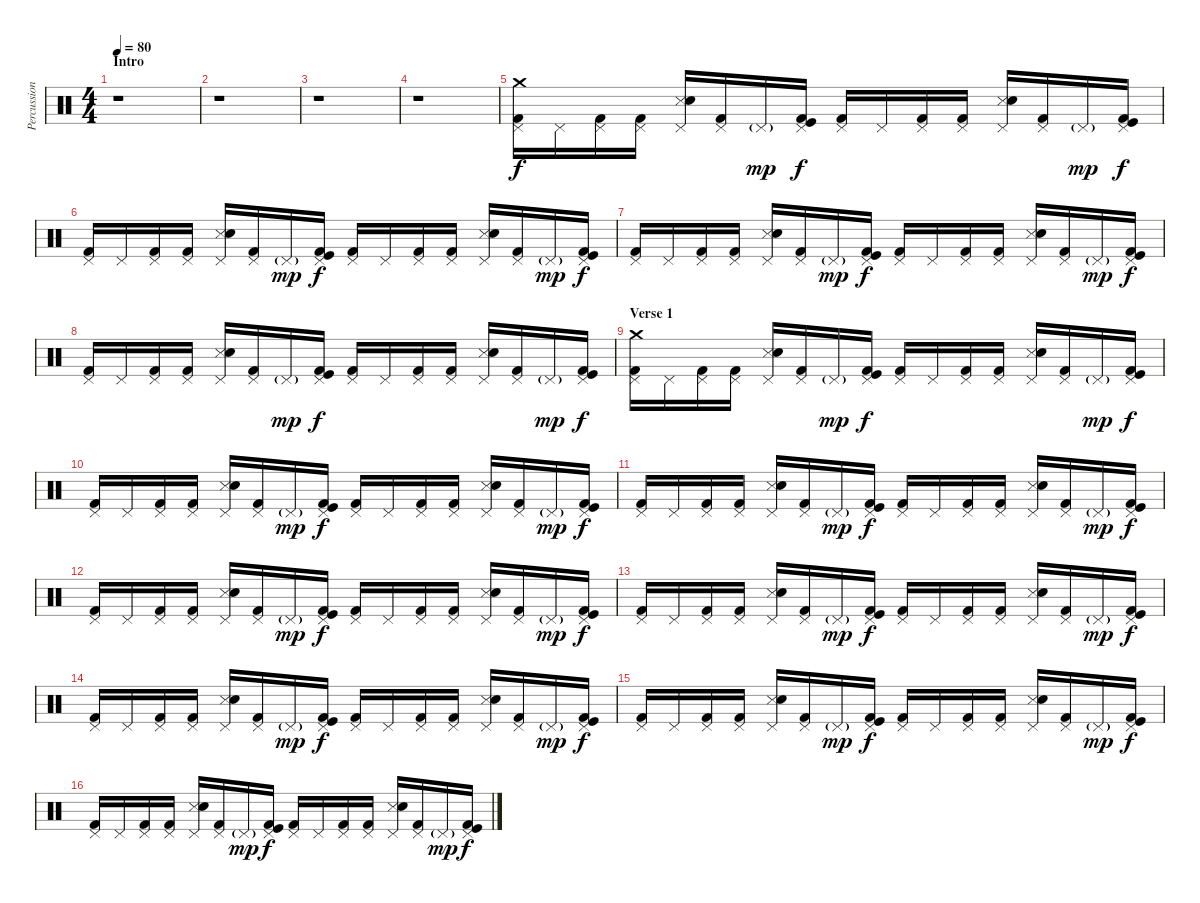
\track ("Percussions" "Percussion") {instrument percussion}
\staff {score}
\articulation defaults
\ts (4 4)
\section ("" "Intro")
\tempo 80
\clef neutral
\ks c
r.1{dy f} |
r.1 |
r.1 |
r.1 |
("Crash medium (hit)" "Pedal Hi-Hat (hit)" "Kick (hit) 2").16 "Pedal Hi-Hat (hit)".16 ("Pedal Hi-Hat (hit)" "Kick (hit) 2").16 ("Pedal Hi-Hat (hit)" "Kick (hit) 2").16 ("Pedal Hi-Hat (hit)" "Snare (side stick) 3" "Electric Snare (hit)").16 ("Pedal Hi-Hat (hit)" "Kick (hit) 2").16 "Pedal Hi-Hat (hit)"{g}.16{dy mp} ("Pedal Hi-Hat (hit)" "Kick (hit) 2" "Kick (hit)").16{dy f} ("Pedal Hi-Hat (hit)" "Kick (hit) 2").16 "Pedal Hi-Hat (hit)".16 ("Pedal Hi-Hat (hit)" "Kick (hit) 2").16 ("Pedal Hi-Hat (hit)" "Kick (hit) 2").16 ("Pedal Hi-Hat (hit)" "Snare (side stick) 3" "Electric Snare (hit)").16 ("Pedal Hi-Hat (hit)" "Kick (hit) 2").16 "Pedal Hi-Hat (hit)"{g}.16{dy mp} ("Pedal Hi-Hat (hit)" "Kick (hit) 2" "Kick (hit)").16{dy f} |
("Pedal Hi-Hat (hit)" "Kick (hit) 2").16 "Pedal Hi-Hat (hit)".16 ("Pedal Hi-Hat (hit)" "Kick (hit) 2").16 ("Pedal Hi-Hat (hit)" "Kick (hit) 2").16 ("Pedal Hi-Hat (hit)" "Snare (side stick) 3" "Electric Snare (hit)").16 ("Pedal Hi-Hat (hit)" "Kick (hit) 2").16 "Pedal Hi-Hat (hit)"{g}.16{dy mp} ("Pedal Hi-Hat (hit)" "Kick (hit) 2" "Kick (hit)").16{dy f} ("Pedal Hi-Hat (hit)" "Kick (hit) 2").16 "Pedal Hi-Hat (hit)".16 ("Pedal Hi-Hat (hit)" "Kick (hit) 2").16 ("Pedal Hi-Hat (hit)" "Kick (hit) 2").16 ("Pedal Hi-Hat (hit)" "Snare (side stick) 3" "Electric Snare (hit)").16 ("Pedal Hi-Hat (hit)" "Kick (hit) 2").16 "Pedal Hi-Hat (hit)"{g}.16{dy mp} ("Pedal Hi-Hat (hit)" "Kick (hit) 2" "Kick (hit)").16{dy f} |
("Pedal Hi-Hat (hit)" "Kick (hit) 2").16 "Pedal Hi-Hat (hit)".16 ("Pedal Hi-Hat (hit)" "Kick (hit) 2").16 ("Pedal Hi-Hat (hit)" "Kick (hit) 2").16 ("Pedal Hi-Hat (hit)" "Snare (side stick) 3" "Electric Snare (hit)").16 ("Pedal Hi-Hat (hit)" "Kick (hit) 2").16 "Pedal Hi-Hat (hit)"{g}.16{dy mp} ("Pedal Hi-Hat (hit)" "Kick (hit) 2" "Kick (hit)").16{dy f} ("Pedal Hi-Hat (hit)" "Kick (hit) 2").16 "Pedal Hi-Hat (hit)".16 ("Pedal Hi-Hat (hit)" "Kick (hit) 2").16 ("Pedal Hi-Hat (hit)" "Kick (hit) 2").16 ("Pedal Hi-Hat (hit)" "Snare (side stick) 3" "Electric Snare (hit)").16 ("Pedal Hi-Hat (hit)" "Kick (hit) 2").16 "Pedal Hi-Hat (hit)"{g}.16{dy mp} ("Pedal Hi-Hat (hit)" "Kick (hit) 2" "Kick (hit)").16{dy f} |
("Pedal Hi-Hat (hit)" "Kick (hit) 2").16 "Pedal Hi-Hat (hit)".16 ("Pedal Hi-Hat (hit)" "Kick (hit) 2").16 ("Pedal Hi-Hat (hit)" "Kick (hit) 2").16 ("Pedal Hi-Hat (hit)" "Snare (side stick) 3" "Electric Snare (hit)").16 ("Pedal Hi-Hat (hit)" "Kick (hit) 2").16 "Pedal Hi-Hat (hit)"{g}.16{dy mp} ("Pedal Hi-Hat (hit)" "Kick (hit) 2" "Kick (hit)").16{dy f} ("Pedal Hi-Hat (hit)" "Kick (hit) 2").16 "Pedal Hi-Hat (hit)".16 ("Pedal Hi-Hat (hit)" "Kick (hit) 2").16 ("Pedal Hi-Hat (hit)" "Kick (hit) 2").16 ("Pedal Hi-Hat (hit)" "Snare (side stick) 3" "Electric Snare (hit)").16 ("Pedal Hi-Hat (hit)" "Kick (hit) 2").16 "Pedal Hi-Hat (hit)"{g}.16{dy mp} ("Pedal Hi-Hat (hit)" "Kick (hit) 2" "Kick (hit)").16{dy f} |
\section ("" "Verse 1")
("Crash medium (hit)" "Pedal Hi-Hat (hit)" "Kick (hit) 2").16 "Pedal Hi-Hat (hit)".16 ("Pedal Hi-Hat (hit)" "Kick (hit) 2").16 ("Pedal Hi-Hat (hit)" "Kick (hit) 2").16 ("Pedal Hi-Hat (hit)" "Snare (side stick) 3" "Electric Snare (hit)").16 ("Pedal Hi-Hat (hit)" "Kick (hit) 2").16 "Pedal Hi-Hat (hit)"{g}.16{dy mp} ("Pedal Hi-Hat (hit)" "Kick (hit) 2" "Kick (hit)").16{dy f} ("Pedal Hi-Hat (hit)" "Kick (hit) 2").16 "Pedal Hi-Hat (hit)".16 ("Pedal Hi-Hat (hit)" "Kick (hit) 2").16 ("Pedal Hi-Hat (hit)" "Kick (hit) 2").16 ("Pedal Hi-Hat (hit)" "Snare (side stick) 3" "Electric Snare (hit)").16 ("Pedal Hi-Hat (hit)" "Kick (hit) 2").16 "Pedal Hi-Hat (hit)"{g}.16{dy mp} ("Pedal Hi-Hat (hit)" "Kick (hit) 2" "Kick (hit)").16{dy f} |
("Pedal Hi-Hat (hit)" "Kick (hit) 2").16 "Pedal Hi-Hat (hit)".16 ("Pedal Hi-Hat (hit)" "Kick (hit) 2").16 ("Pedal Hi-Hat (hit)" "Kick (hit) 2").16 ("Pedal Hi-Hat (hit)" "Snare (side stick) 3" "Electric Snare (hit)").16 ("Pedal Hi-Hat (hit)" "Kick (hit) 2").16 "Pedal Hi-Hat (hit)"{g}.16{dy mp} ("Pedal Hi-Hat (hit)" "Kick (hit) 2" "Kick (hit)").16{dy f} ("Pedal Hi-Hat (hit)" "Kick (hit) 2").16 "Pedal Hi-Hat (hit)".16 ("Pedal Hi-Hat (hit)" "Kick (hit) 2").16 ("Pedal Hi-Hat (hit)" "Kick (hit) 2").16 ("Pedal Hi-Hat (hit)" "Snare (side stick) 3" "Electric Snare (hit)").16 ("Pedal Hi-Hat (hit)" "Kick (hit) 2").16 "Pedal Hi-Hat (hit)"{g}.16{dy mp} ("Pedal Hi-Hat (hit)" "Kick (hit) 2" "Kick (hit)").16{dy f} |
("Pedal Hi-Hat (hit)" "Kick (hit) 2").16 "Pedal Hi-Hat (hit)".16 ("Pedal Hi-Hat (hit)" "Kick (hit) 2").16 ("Pedal Hi-Hat (hit)" "Kick (hit) 2").16 ("Pedal Hi-Hat (hit)" "Snare (side stick) 3" "Electric Snare (hit)").16 ("Pedal Hi-Hat (hit)" "Kick (hit) 2").16 "Pedal Hi-Hat (hit)"{g}.16{dy mp} ("Pedal Hi-Hat (hit)" "Kick (hit) 2" "Kick (hit)").16{dy f} ("Pedal Hi-Hat (hit)" "Kick (hit) 2").16 "Pedal Hi-Hat (hit)".16 ("Pedal Hi-Hat (hit)" "Kick (hit) 2").16 ("Pedal Hi-Hat (hit)" "Kick (hit) 2").16 ("Pedal Hi-Hat (hit)" "Snare (side stick) 3" "Electric Snare (hit)").16 ("Pedal Hi-Hat (hit)" "Kick (hit) 2").16 "Pedal Hi-Hat (hit)"{g}.16{dy mp} ("Pedal Hi-Hat (hit)" "Kick (hit) 2" "Kick (hit)").16{dy f} |
("Pedal Hi-Hat (hit)" "Kick (hit) 2").16 "Pedal Hi-Hat (hit)".16 ("Pedal Hi-Hat (hit)" "Kick (hit) 2").16 ("Pedal Hi-Hat (hit)" "Kick (hit) 2").16 ("Pedal Hi-Hat (hit)" "Snare (side stick) 3" "Electric Snare (hit)").16 ("Pedal Hi-Hat (hit)" "Kick (hit) 2").16 "Pedal Hi-Hat (hit)"{g}.16{dy mp} ("Pedal Hi-Hat (hit)" "Kick (hit) 2" "Kick (hit)").16{dy f} ("Pedal Hi-Hat (hit)" "Kick (hit) 2").16 "Pedal Hi-Hat (hit)".16 ("Pedal Hi-Hat (hit)" "Kick (hit) 2").16 ("Pedal Hi-Hat (hit)" "Kick (hit) 2").16 ("Pedal Hi-Hat (hit)" "Snare (side stick) 3" "Electric Snare (hit)").16 ("Pedal Hi-Hat (hit)" "Kick (hit) 2").16 "Pedal Hi-Hat (hit)"{g}.16{dy mp} ("Pedal Hi-Hat (hit)" "Kick (hit) 2" "Kick (hit)").16{dy f} |
("Pedal Hi-Hat (hit)" "Kick (hit) 2").16 "Pedal Hi-Hat (hit)".16 ("Pedal Hi-Hat (hit)" "Kick (hit) 2").16 ("Pedal Hi-Hat (hit)" "Kick (hit) 2").16 ("Pedal Hi-Hat (hit)" "Snare (side stick) 3" "Electric Snare (hit)").16 ("Pedal Hi-Hat (hit)" "Kick (hit) 2").16 "Pedal Hi-Hat (hit)"{g}.16{dy mp} ("Pedal Hi-Hat (hit)" "Kick (hit) 2" "Kick (hit)").16{dy f} ("Pedal Hi-Hat (hit)" "Kick (hit) 2").16 "Pedal Hi-Hat (hit)".16 ("Pedal Hi-Hat (hit)" "Kick (hit) 2").16 ("Pedal Hi-Hat (hit)" "Kick (hit) 2").16 ("Pedal Hi-Hat (hit)" "Snare (side stick) 3" "Electric Snare (hit)").16 ("Pedal Hi-Hat (hit)" "Kick (hit) 2").16 "Pedal Hi-Hat (hit)"{g}.16{dy mp} ("Pedal Hi-Hat (hit)" "Kick (hit) 2" "Kick (hit)").16{dy f} |
("Pedal Hi-Hat (hit)" "Kick (hit) 2").16 "Pedal Hi-Hat (hit)".16 ("Pedal Hi-Hat (hit)" "Kick (hit) 2").16 ("Pedal Hi-Hat (hit)" "Kick (hit) 2").16 ("Pedal Hi-Hat (hit)" "Snare (side stick) 3" "Electric Snare (hit)").16 ("Pedal Hi-Hat (hit)" "Kick (hit) 2").16 "Pedal Hi-Hat (hit)"{g}.16{dy mp} ("Pedal Hi-Hat (hit)" "Kick (hit) 2" "Kick (hit)").16{dy f} ("Pedal Hi-Hat (hit)" "Kick (hit) 2").16 "Pedal Hi-Hat (hit)".16 ("Pedal Hi-Hat (hit)" "Kick (hit) 2").16 ("Pedal Hi-Hat (hit)" "Kick (hit) 2").16 ("Pedal Hi-Hat (hit)" "Snare (side stick) 3" "Electric Snare (hit)").16 ("Pedal Hi-Hat (hit)" "Kick (hit) 2").16 "Pedal Hi-Hat (hit)"{g}.16{dy mp} ("Pedal Hi-Hat (hit)" "Kick (hit) 2" "Kick (hit)").16{dy f} |
("Pedal Hi-Hat (hit)" "Kick (hit) 2").16 "Pedal Hi-Hat (hit)".16 ("Pedal Hi-Hat (hit)" "Kick (hit) 2").16 ("Pedal Hi-Hat (hit)" "Kick (hit) 2").16 ("Pedal Hi-Hat (hit)" "Snare (side stick) 3" "Electric Snare (hit)").16 ("Pedal Hi-Hat (hit)" "Kick (hit) 2").16 "Pedal Hi-Hat (hit)"{g}.16{dy mp} ("Pedal Hi-Hat (hit)" "Kick (hit) 2" "Kick (hit)").16{dy f} ("Pedal Hi-Hat (hit)" "Kick (hit) 2").16 "Pedal Hi-Hat (hit)".16 ("Pedal Hi-Hat (hit)" "Kick (hit) 2").16 ("Pedal Hi-Hat (hit)" "Kick (hit) 2").16 ("Pedal Hi-Hat (hit)" "Snare (side stick) 3" "Electric Snare (hit)").16 ("Pedal Hi-Hat (hit)" "Kick (hit) 2").16 "Pedal Hi-Hat (hit)"{g}.16{dy mp} ("Pedal Hi-Hat (hit)" "Kick (hit) 2" "Kick (hit)").16{dy f} |
("Pedal Hi-Hat (hit)" "Kick (hit) 2").16 "Pedal Hi-Hat (hit)".16 ("Pedal Hi-Hat (hit)" "Kick (hit) 2").16 ("Pedal Hi-Hat (hit)" "Kick (hit) 2").16 ("Pedal Hi-Hat (hit)" "Snare (side stick) 3" "Electric Snare (hit)").16 ("Pedal Hi-Hat (hit)" "Kick (hit) 2").16 "Pedal Hi-Hat (hit)"{g}.16{dy mp} ("Pedal Hi-Hat (hit)" "Kick (hit) 2" "Kick (hit)").16{dy f} ("Pedal Hi-Hat (hit)" "Kick (hit) 2").16 "Pedal Hi-Hat (hit)".16 ("Pedal Hi-Hat (hit)" "Kick (hit) 2").16 ("Pedal Hi-Hat (hit)" "Kick (hit) 2").16 ("Pedal Hi-Hat (hit)" "Snare (side stick) 3" "Electric Snare (hit)").16 ("Pedal Hi-Hat (hit)" "Kick (hit) 2").16 "Pedal Hi-Hat (hit)"{g}.16{dy mp} ("Pedal Hi-Hat (hit)" "Kick (hit) 2" "Kick (hit)").16{dy f}
